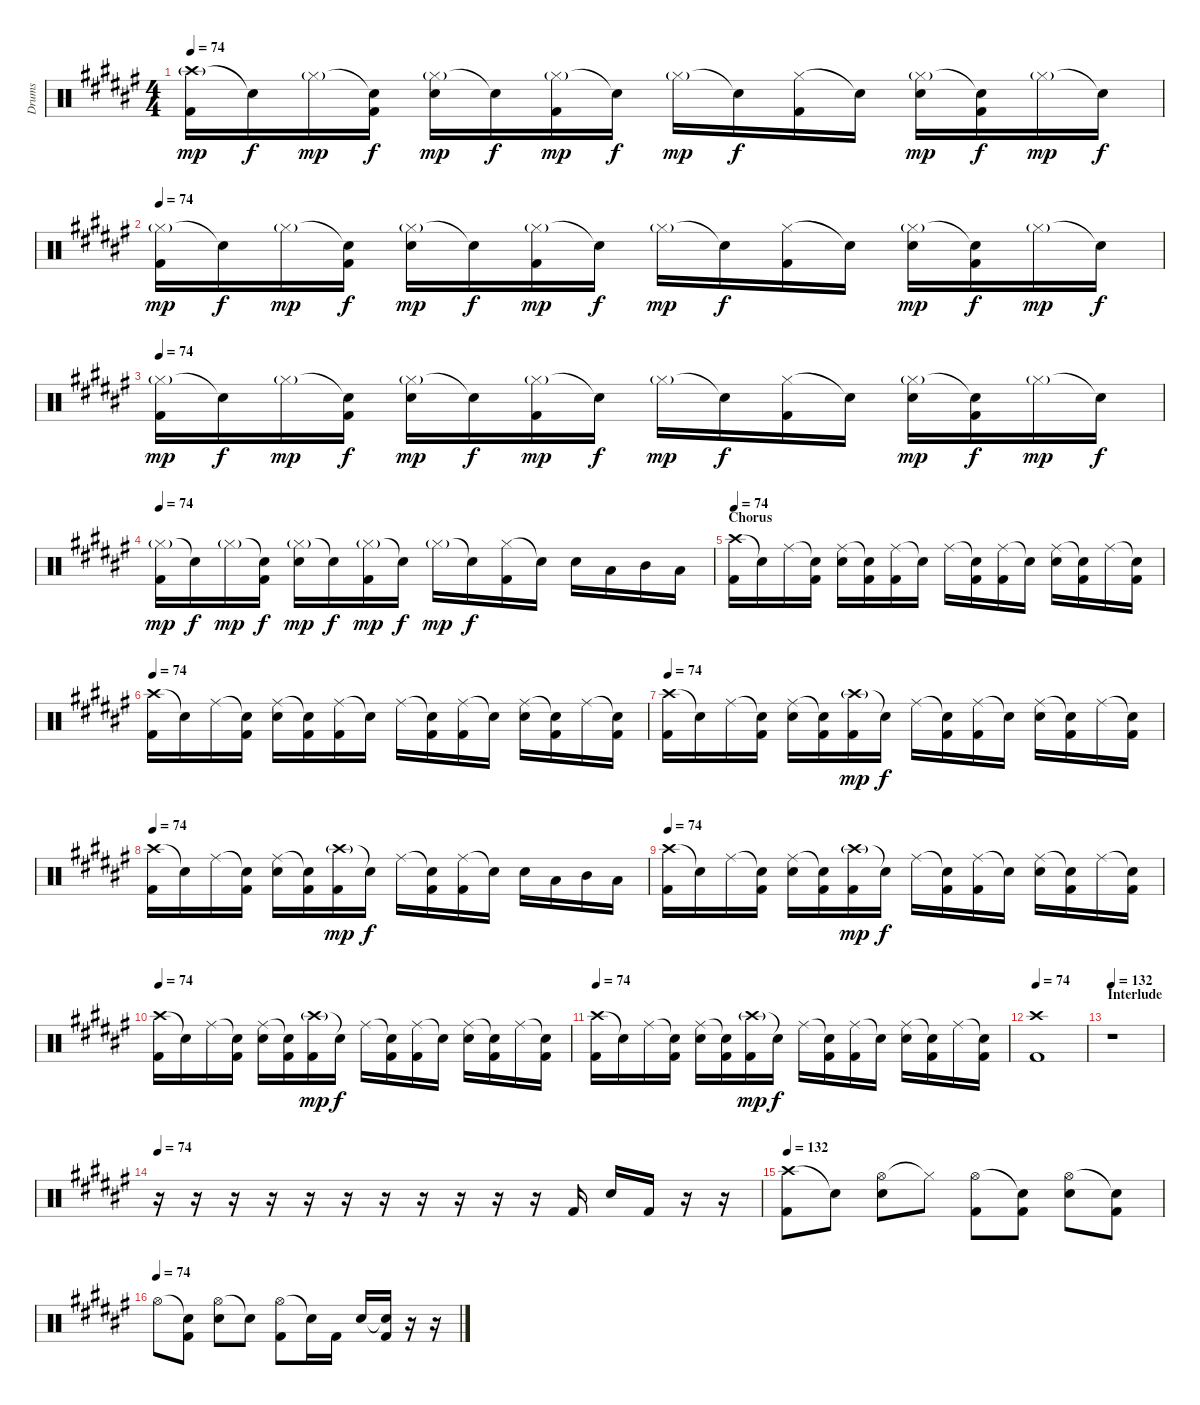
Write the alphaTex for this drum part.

\track ("Drums" "Drums") {instrument percussion}
\staff {score}
\articulation defaults
\ts (4 4)
\tempo 74
\clef neutral
\ks f#
("Crash high (hit)"{g} "Kick (hit) 2").16{dy mp} "Snare (hit)"{t}.16{dy f} "Hi-Hat (closed)"{g}.16{dy mp} ("Snare (hit)"{t} "Kick (hit) 2").16{dy f} ("Hi-Hat (closed)"{g} "Electric Snare (hit)").16{dy mp} "Snare (hit)"{t}.16{dy f} ("Hi-Hat (closed)"{g} "Kick (hit) 2").16{dy mp} "Snare (hit)"{t}.16{dy f} "Hi-Hat (closed)"{g}.16{dy mp} "Snare (hit)"{t}.16{dy f} ("Hi-Hat (closed)" "Kick (hit) 2").16 "Snare (hit)"{t}.16 ("Hi-Hat (closed)"{g} "Electric Snare (hit)").16{dy mp} ("Snare (hit)"{t} "Kick (hit) 2").16{dy f} "Hi-Hat (closed)"{g}.16{dy mp} "Snare (hit)"{t}.16{dy f} |
\tempo 74
("Hi-Hat (closed)"{g} "Kick (hit) 2").16{dy mp} "Snare (hit)"{t}.16{dy f} "Hi-Hat (closed)"{g}.16{dy mp} ("Snare (hit)"{t} "Kick (hit) 2").16{dy f} ("Hi-Hat (closed)"{g} "Electric Snare (hit)").16{dy mp} "Snare (hit)"{t}.16{dy f} ("Hi-Hat (closed)"{g} "Kick (hit) 2").16{dy mp} "Snare (hit)"{t}.16{dy f} "Hi-Hat (closed)"{g}.16{dy mp} "Snare (hit)"{t}.16{dy f} ("Hi-Hat (closed)" "Kick (hit) 2").16 "Snare (hit)"{t}.16 ("Hi-Hat (closed)"{g} "Electric Snare (hit)").16{dy mp} ("Snare (hit)"{t} "Kick (hit) 2").16{dy f} "Hi-Hat (closed)"{g}.16{dy mp} "Snare (hit)"{t}.16{dy f} |
\tempo 74
("Hi-Hat (closed)"{g} "Kick (hit) 2").16{dy mp} "Snare (hit)"{t}.16{dy f} "Hi-Hat (closed)"{g}.16{dy mp} ("Snare (hit)"{t} "Kick (hit) 2").16{dy f} ("Hi-Hat (closed)"{g} "Electric Snare (hit)").16{dy mp} "Snare (hit)"{t}.16{dy f} ("Hi-Hat (closed)"{g} "Kick (hit) 2").16{dy mp} "Snare (hit)"{t}.16{dy f} "Hi-Hat (closed)"{g}.16{dy mp} "Snare (hit)"{t}.16{dy f} ("Hi-Hat (closed)" "Kick (hit) 2").16 "Snare (hit)"{t}.16 ("Hi-Hat (closed)"{g} "Electric Snare (hit)").16{dy mp} ("Snare (hit)"{t} "Kick (hit) 2").16{dy f} "Hi-Hat (closed)"{g}.16{dy mp} "Snare (hit)"{t}.16{dy f} |
\tempo 74
("Hi-Hat (closed)"{g} "Kick (hit) 2").16{dy mp} "Snare (hit)"{t}.16{dy f} "Hi-Hat (closed)"{g}.16{dy mp} ("Snare (hit)"{t} "Kick (hit) 2").16{dy f} ("Hi-Hat (closed)"{g} "Electric Snare (hit)").16{dy mp} "Snare (hit)"{t}.16{dy f} ("Hi-Hat (closed)"{g} "Kick (hit) 2").16{dy mp} "Snare (hit)"{t}.16{dy f} "Hi-Hat (closed)"{g}.16{dy mp} "Snare (hit)"{t}.16{dy f} ("Hi-Hat (closed)" "Kick (hit) 2").16 "Snare (hit)"{t}.16 "Electric Snare (hit)".16 "Low Tom (hit)".16 "Mid Tom (hit)".16 "Low Floor Tom (hit)".16 |
\section ("" "Chorus")
\tempo 74
("Crash high (hit)" "Kick (hit) 2").16 "Snare (hit)"{t}.16 "Ride (middle)".16 ("Snare (hit)"{t} "Kick (hit) 2").16 ("Ride (middle)" "Electric Snare (hit)").16 ("Snare (hit)"{t} "Kick (hit) 2").16 ("Ride (middle)" "Kick (hit) 2").16 "Snare (hit)"{t}.16 "Ride (middle)".16 ("Snare (hit)"{t} "Kick (hit) 2").16 ("Ride (middle)" "Kick (hit) 2").16 "Snare (hit)"{t}.16 ("Ride (middle)" "Electric Snare (hit)").16 ("Snare (hit)"{t} "Kick (hit) 2").16 "Ride (middle)".16 ("Snare (hit)"{t} "Kick (hit) 2").16 |
\tempo 74
("Crash high (hit)" "Kick (hit) 2").16 "Snare (hit)"{t}.16 "Ride (middle)".16 ("Snare (hit)"{t} "Kick (hit) 2").16 ("Ride (middle)" "Electric Snare (hit)").16 ("Snare (hit)"{t} "Kick (hit) 2").16 ("Ride (middle)" "Kick (hit) 2").16 "Snare (hit)"{t}.16 "Ride (middle)".16 ("Snare (hit)"{t} "Kick (hit) 2").16 ("Ride (middle)" "Kick (hit) 2").16 "Snare (hit)"{t}.16 ("Ride (middle)" "Electric Snare (hit)").16 ("Snare (hit)"{t} "Kick (hit) 2").16 "Ride (middle)".16 ("Snare (hit)"{t} "Kick (hit) 2").16 |
\tempo 74
("Crash high (hit)" "Kick (hit) 2").16 "Snare (hit)"{t}.16 "Ride (middle)".16 ("Snare (hit)"{t} "Kick (hit) 2").16 ("Ride (middle)" "Electric Snare (hit)").16 ("Snare (hit)"{t} "Kick (hit) 2").16 ("Crash high (hit)"{g} "Kick (hit) 2").16{dy mp} "Snare (hit)"{t}.16{dy f} "Ride (middle)".16 ("Snare (hit)"{t} "Kick (hit) 2").16 ("Ride (middle)" "Kick (hit) 2").16 "Snare (hit)"{t}.16 ("Ride (middle)" "Electric Snare (hit)").16 ("Snare (hit)"{t} "Kick (hit) 2").16 "Ride (middle)".16 ("Snare (hit)"{t} "Kick (hit) 2").16 |
\tempo 74
("Crash high (hit)" "Kick (hit) 2").16 "Snare (hit)"{t}.16 "Ride (middle)".16 ("Snare (hit)"{t} "Kick (hit) 2").16 ("Ride (middle)" "Electric Snare (hit)").16 ("Snare (hit)"{t} "Kick (hit) 2").16 ("Crash high (hit)"{g} "Kick (hit) 2").16{dy mp} "Snare (hit)"{t}.16{dy f} "Ride (middle)".16 ("Snare (hit)"{t} "Kick (hit) 2").16 ("Ride (middle)" "Kick (hit) 2").16 "Snare (hit)"{t}.16 "Electric Snare (hit)".16 "Low Tom (hit)".16 "Mid Tom (hit)".16 "Low Floor Tom (hit)".16 |
\tempo 74
("Crash high (hit)" "Kick (hit) 2").16 "Snare (hit)"{t}.16 "Ride (middle)".16 ("Snare (hit)"{t} "Kick (hit) 2").16 ("Ride (middle)" "Electric Snare (hit)").16 ("Snare (hit)"{t} "Kick (hit) 2").16 ("Crash high (hit)"{g} "Kick (hit) 2").16{dy mp} "Snare (hit)"{t}.16{dy f} "Ride (middle)".16 ("Snare (hit)"{t} "Kick (hit) 2").16 ("Ride (middle)" "Kick (hit) 2").16 "Snare (hit)"{t}.16 ("Ride (middle)" "Electric Snare (hit)").16 ("Snare (hit)"{t} "Kick (hit) 2").16 "Ride (middle)".16 ("Snare (hit)"{t} "Kick (hit) 2").16 |
\tempo 74
("Crash high (hit)" "Kick (hit) 2").16 "Snare (hit)"{t}.16 "Ride (middle)".16 ("Snare (hit)"{t} "Kick (hit) 2").16 ("Ride (middle)" "Electric Snare (hit)").16 ("Snare (hit)"{t} "Kick (hit) 2").16 ("Crash high (hit)"{g} "Kick (hit) 2").16{dy mp} "Snare (hit)"{t}.16{dy f} "Ride (middle)".16 ("Snare (hit)"{t} "Kick (hit) 2").16 ("Ride (middle)" "Kick (hit) 2").16 "Snare (hit)"{t}.16 ("Ride (middle)" "Electric Snare (hit)").16 ("Snare (hit)"{t} "Kick (hit) 2").16 "Ride (middle)".16 ("Snare (hit)"{t} "Kick (hit) 2").16 |
\tempo 74
("Crash high (hit)" "Kick (hit) 2").16 "Snare (hit)"{t}.16 "Ride (middle)".16 ("Snare (hit)"{t} "Kick (hit) 2").16 ("Ride (middle)" "Electric Snare (hit)").16 ("Snare (hit)"{t} "Kick (hit) 2").16 ("Crash high (hit)"{g} "Kick (hit) 2").16{dy mp} "Snare (hit)"{t}.16{dy f} "Ride (middle)".16 ("Snare (hit)"{t} "Kick (hit) 2").16 ("Ride (middle)" "Kick (hit) 2").16 "Snare (hit)"{t}.16 ("Ride (middle)" "Electric Snare (hit)").16 ("Snare (hit)"{t} "Kick (hit) 2").16 "Ride (middle)".16 ("Snare (hit)"{t} "Kick (hit) 2").16 |
\tempo 74
("Crash high (hit)" "Kick (hit) 2").1 |
\section ("" "Interlude")
\tempo 74
\tempo 132
r.1 |
\tempo 74
r.16 r.16 r.16 r.16 r.16 r.16 r.16 r.16 r.16 r.16 r.16 "Kick (hit) 2".16 "Electric Snare (hit)".16 "Kick (hit) 2".16 r.16 r.16 |
\tempo 74
\tempo 132
("Crash high (hit)" "Kick (hit) 2").8 "Snare (hit)"{t}.8 ("Hi-Hat (open)" "Electric Snare (hit)").8 "Hi-Hat (closed)"{t}.8 ("Hi-Hat (open)" "Kick (hit) 2").8 ("Snare (hit)"{t} "Kick (hit) 2").8 ("Hi-Hat (open)" "Electric Snare (hit)").8 ("Snare (hit)"{t} "Kick (hit) 2").8 |
\tempo (74)
"Hi-Hat (open)".8 ("Snare (hit)"{t} "Kick (hit) 2").8 ("Hi-Hat (open)" "Electric Snare (hit)").8 "Snare (hit)"{t}.8 ("Hi-Hat (open)" "Kick (hit) 2").8 "Snare (hit)"{t}.16 "Kick (hit) 2".16 "Electric Snare (hit)".16 ("Snare (hit)"{t} "Kick (hit) 2").16 r.16 r.16
